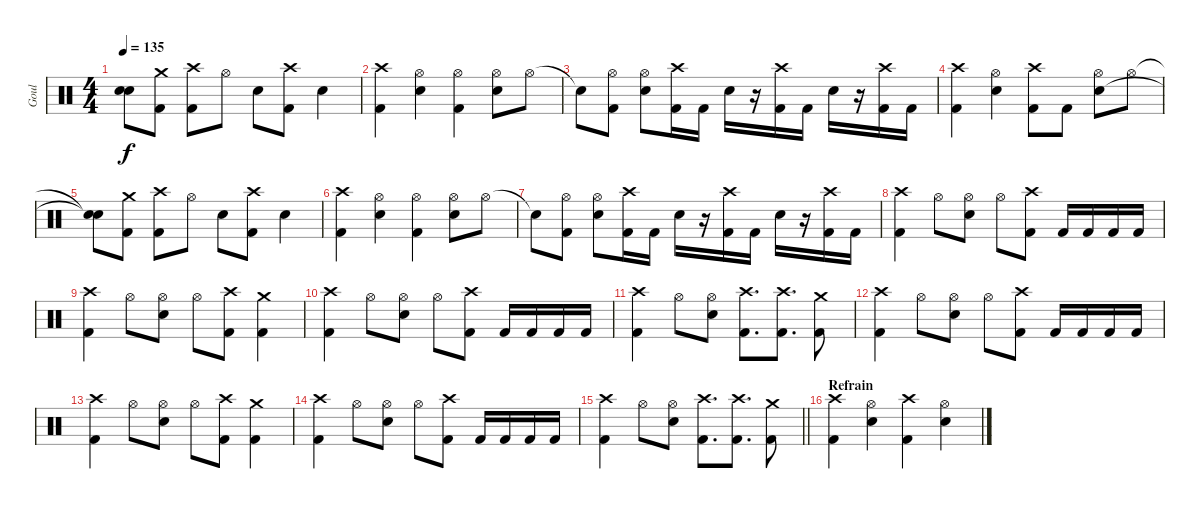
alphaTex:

\track ("Goul" "Goul") {instrument percussion}
\staff {score}
\articulation defaults
\ts (4 4)
\tempo 135
\clef neutral
\ks c
("Snare (hit)"{t} "Snare (hit)"{t}).8{dy f} ("Crash medium (hit)" "Kick (hit) 2").8 ("Crash high (hit)" "Kick (hit) 2").8 "Hi-Hat (open)".8 "Electric Snare (hit)".8 ("Crash high (hit)" "Kick (hit) 2").8 "Electric Snare (hit)".4 |
("Crash high (hit)" "Kick (hit) 2").4 ("Hi-Hat (open)" "Electric Snare (hit)").4 ("Hi-Hat (open)" "Kick (hit) 2").4 ("Hi-Hat (open)" "Electric Snare (hit)").8 "Hi-Hat (open)".8 |
"Snare (hit)"{t}.8 ("Hi-Hat (open)" "Kick (hit) 2").8 ("Electric Snare (hit)" "Hi-Hat (open)").8 ("Crash high (hit)" "Kick (hit) 2").16 "Kick (hit) 2".16 "Electric Snare (hit)".16 r.16 ("Crash high (hit)" "Kick (hit) 2").16 "Kick (hit) 2".16 "Electric Snare (hit)".16 r.16 ("Crash high (hit)" "Kick (hit) 2").16 "Kick (hit) 2".16 |
("Crash high (hit)" "Kick (hit) 2").4 ("Hi-Hat (open)" "Electric Snare (hit)").4 ("Crash high (hit)" "Kick (hit) 2").8 "Kick (hit) 2".8 ("Hi-Hat (open)" "Electric Snare (hit)").8 "Hi-Hat (open)".8 |
("Snare (hit)"{t} "Snare (hit)"{t}).8 ("Crash medium (hit)" "Kick (hit) 2").8 ("Crash high (hit)" "Kick (hit) 2").8 "Hi-Hat (open)".8 "Electric Snare (hit)".8 ("Crash high (hit)" "Kick (hit) 2").8 "Electric Snare (hit)".4 |
("Crash high (hit)" "Kick (hit) 2").4 ("Hi-Hat (open)" "Electric Snare (hit)").4 ("Hi-Hat (open)" "Kick (hit) 2").4 ("Hi-Hat (open)" "Electric Snare (hit)").8 "Hi-Hat (open)".8 |
"Snare (hit)"{t}.8 ("Hi-Hat (open)" "Kick (hit) 2").8 ("Electric Snare (hit)" "Hi-Hat (open)").8 ("Crash high (hit)" "Kick (hit) 2").16 "Kick (hit) 2".16 "Electric Snare (hit)".16 r.16 ("Crash high (hit)" "Kick (hit) 2").16 "Kick (hit) 2".16 "Electric Snare (hit)".16 r.16 ("Crash high (hit)" "Kick (hit) 2").16 "Kick (hit) 2".16 |
("Crash high (hit)" "Kick (hit) 2").4 "Hi-Hat (open)".8 ("Hi-Hat (open)" "Electric Snare (hit)").8 "Hi-Hat (open)".8 ("Crash high (hit)" "Kick (hit) 2").8 "Kick (hit) 2".16 "Kick (hit) 2".16 "Kick (hit) 2".16 "Kick (hit) 2".16 |
("Crash high (hit)" "Kick (hit) 2").4 "Hi-Hat (open)".8 ("Electric Snare (hit)" "Hi-Hat (open)").8 "Hi-Hat (open)".8 ("Crash high (hit)" "Kick (hit) 2").8 ("Crash medium (hit)" "Kick (hit) 2").4 |
("Crash high (hit)" "Kick (hit) 2").4 "Hi-Hat (open)".8 ("Hi-Hat (open)" "Electric Snare (hit)").8 "Hi-Hat (open)".8 ("Crash high (hit)" "Kick (hit) 2").8 "Kick (hit) 2".16 "Kick (hit) 2".16 "Kick (hit) 2".16 "Kick (hit) 2".16 |
("Crash high (hit)" "Kick (hit) 2").4 "Hi-Hat (open)".8 ("Electric Snare (hit)" "Hi-Hat (open)").8 ("Crash high (hit)" "Kick (hit) 2").8{d} ("Crash high (hit)" "Kick (hit) 2").8{d} ("Crash medium (hit)" "Kick (hit) 2").8 |
("Crash high (hit)" "Kick (hit) 2").4 "Hi-Hat (open)".8 ("Hi-Hat (open)" "Electric Snare (hit)").8 "Hi-Hat (open)".8 ("Crash high (hit)" "Kick (hit) 2").8 "Kick (hit) 2".16 "Kick (hit) 2".16 "Kick (hit) 2".16 "Kick (hit) 2".16 |
("Crash high (hit)" "Kick (hit) 2").4 "Hi-Hat (open)".8 ("Electric Snare (hit)" "Hi-Hat (open)").8 "Hi-Hat (open)".8 ("Crash high (hit)" "Kick (hit) 2").8 ("Crash medium (hit)" "Kick (hit) 2").4 |
("Crash high (hit)" "Kick (hit) 2").4 "Hi-Hat (open)".8 ("Hi-Hat (open)" "Electric Snare (hit)").8 "Hi-Hat (open)".8 ("Crash high (hit)" "Kick (hit) 2").8 "Kick (hit) 2".16 "Kick (hit) 2".16 "Kick (hit) 2".16 "Kick (hit) 2".16 |
\barLineRight lightlight
("Crash high (hit)" "Kick (hit) 2").4 "Hi-Hat (open)".8 ("Electric Snare (hit)" "Hi-Hat (open)").8 ("Crash high (hit)" "Kick (hit) 2").8{d} ("Crash high (hit)" "Kick (hit) 2").8{d} ("Crash medium (hit)" "Kick (hit) 2").8 |
\section ("" "Refrain")
("Crash high (hit)" "Kick (hit) 2").4 ("Hi-Hat (open)" "Electric Snare (hit)").4 ("Crash high (hit)" "Kick (hit) 2").4 ("Hi-Hat (open)" "Electric Snare (hit)").4
